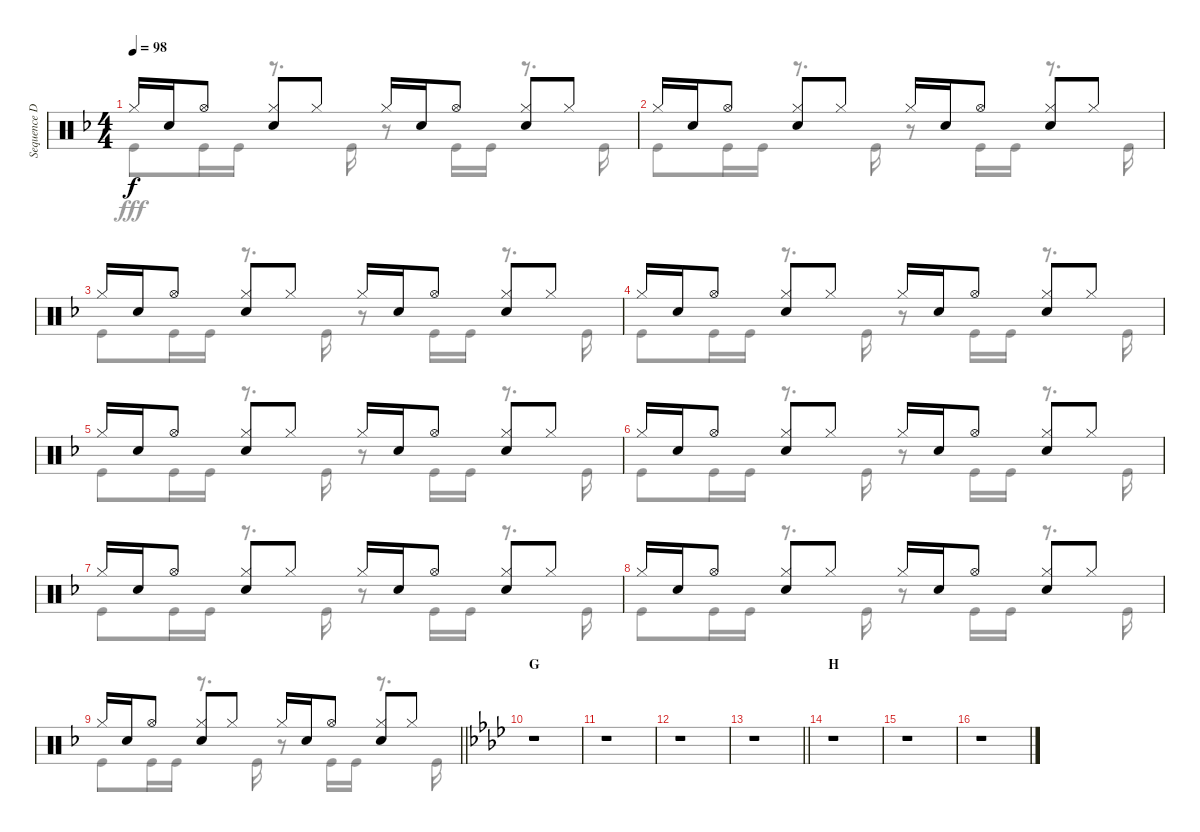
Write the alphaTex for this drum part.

\track ("Sequence Drums II" "Sequence D") {instrument percussion}
\staff {score}
\articulation defaults
\voice
\ts (4 4)
\tempo 98
\clef neutral
\ks f "Hi-Hat (closed)".16{dy f} "Snare (hit) 2".16 "Hi-Hat (open)".8
("Hi-Hat (closed)" "Snare (hit) 2").8 "Hi-Hat (closed)".8 "Hi-Hat (closed)".16 "Snare (hit) 2".16 "Hi-Hat (open)".8 ("Hi-Hat (closed)" "Snare (hit) 2").8 "Hi-Hat (closed)".8 |
"Hi-Hat (closed)".16 "Snare (hit) 2".16 "Hi-Hat (open)".8 ("Hi-Hat (closed)" "Snare (hit) 2").8 "Hi-Hat (closed)".8 "Hi-Hat (closed)".16 "Snare (hit) 2".16 "Hi-Hat (open)".8 ("Hi-Hat (closed)" "Snare (hit) 2").8 "Hi-Hat (closed)".8 |
"Hi-Hat (closed)".16 "Snare (hit) 2".16 "Hi-Hat (open)".8 ("Hi-Hat (closed)" "Snare (hit) 2").8 "Hi-Hat (closed)".8 "Hi-Hat (closed)".16 "Snare (hit) 2".16 "Hi-Hat (open)".8 ("Hi-Hat (closed)" "Snare (hit) 2").8 "Hi-Hat (closed)".8 |
"Hi-Hat (closed)".16 "Snare (hit) 2".16 "Hi-Hat (open)".8 ("Hi-Hat (closed)" "Snare (hit) 2").8 "Hi-Hat (closed)".8 "Hi-Hat (closed)".16 "Snare (hit) 2".16 "Hi-Hat (open)".8 ("Hi-Hat (closed)" "Snare (hit) 2").8 "Hi-Hat (closed)".8 |
"Hi-Hat (closed)".16 "Snare (hit) 2".16 "Hi-Hat (open)".8 ("Hi-Hat (closed)" "Snare (hit) 2").8 "Hi-Hat (closed)".8 "Hi-Hat (closed)".16 "Snare (hit) 2".16 "Hi-Hat (open)".8 ("Hi-Hat (closed)" "Snare (hit) 2").8 "Hi-Hat (closed)".8 |
"Hi-Hat (closed)".16 "Snare (hit) 2".16 "Hi-Hat (open)".8 ("Hi-Hat (closed)" "Snare (hit) 2").8 "Hi-Hat (closed)".8 "Hi-Hat (closed)".16 "Snare (hit) 2".16 "Hi-Hat (open)".8 ("Hi-Hat (closed)" "Snare (hit) 2").8 "Hi-Hat (closed)".8 |
"Hi-Hat (closed)".16 "Snare (hit) 2".16 "Hi-Hat (open)".8 ("Hi-Hat (closed)" "Snare (hit) 2").8 "Hi-Hat (closed)".8 "Hi-Hat (closed)".16 "Snare (hit) 2".16 "Hi-Hat (open)".8 ("Hi-Hat (closed)" "Snare (hit) 2").8 "Hi-Hat (closed)".8 |
"Hi-Hat (closed)".16 "Snare (hit) 2".16 "Hi-Hat (open)".8 ("Hi-Hat (closed)" "Snare (hit) 2").8 "Hi-Hat (closed)".8 "Hi-Hat (closed)".16 "Snare (hit) 2".16 "Hi-Hat (open)".8 ("Hi-Hat (closed)" "Snare (hit) 2").8 "Hi-Hat (closed)".8 |
\barLineRight lightlight "Hi-Hat (closed)".16 "Snare (hit) 2".16 "Hi-Hat (open)".8
("Hi-Hat (closed)" "Snare (hit) 2").8 "Hi-Hat (closed)".8 "Hi-Hat (closed)".16 "Snare (hit) 2".16 "Hi-Hat (open)".8 ("Hi-Hat (closed)" "Snare (hit) 2").8 "Hi-Hat (closed)".8 |
\section ("" "G")
\ks ab
r.1 |
r.1 |
r.1 |
\barLineRight lightlight
r.1 |
\section ("" "H")
r.1 |
r.1 |
r.1
\voice
\clef neutral
\ottava regular
\simile none
\ks f "Kick (hit)".8{dy fff} "Kick (hit)".16 "Kick (hit)".16
r.8{d} "Kick (hit)".16 r.8 "Kick (hit)".16 "Kick (hit)".16 r.8{d} "Kick (hit)".16 |
"Kick (hit)".8 "Kick (hit)".16 "Kick (hit)".16 r.8{d} "Kick (hit)".16 r.8 "Kick (hit)".16 "Kick (hit)".16 r.8{d} "Kick (hit)".16 |
"Kick (hit)".8 "Kick (hit)".16 "Kick (hit)".16 r.8{d} "Kick (hit)".16 r.8 "Kick (hit)".16 "Kick (hit)".16 r.8{d} "Kick (hit)".16 |
"Kick (hit)".8 "Kick (hit)".16 "Kick (hit)".16 r.8{d} "Kick (hit)".16 r.8 "Kick (hit)".16 "Kick (hit)".16 r.8{d} "Kick (hit)".16 |
"Kick (hit)".8 "Kick (hit)".16 "Kick (hit)".16 r.8{d} "Kick (hit)".16 r.8 "Kick (hit)".16 "Kick (hit)".16 r.8{d} "Kick (hit)".16 |
"Kick (hit)".8 "Kick (hit)".16 "Kick (hit)".16 r.8{d} "Kick (hit)".16 r.8 "Kick (hit)".16 "Kick (hit)".16 r.8{d} "Kick (hit)".16 |
"Kick (hit)".8 "Kick (hit)".16 "Kick (hit)".16 r.8{d} "Kick (hit)".16 r.8 "Kick (hit)".16 "Kick (hit)".16 r.8{d} "Kick (hit)".16 |
"Kick (hit)".8 "Kick (hit)".16 "Kick (hit)".16 r.8{d} "Kick (hit)".16 r.8 "Kick (hit)".16 "Kick (hit)".16 r.8{d} "Kick (hit)".16 |
\barLineRight lightlight "Kick (hit)".8 "Kick (hit)".16 "Kick (hit)".16
r.8{d} "Kick (hit)".16 r.8 "Kick (hit)".16 "Kick (hit)".16 r.8{d} "Kick (hit)".16 |
\ks ab
r.1 |
r.1 |
r.1 |
\barLineRight lightlight
r.1 |
r.1 |
r.1 |
r.1
